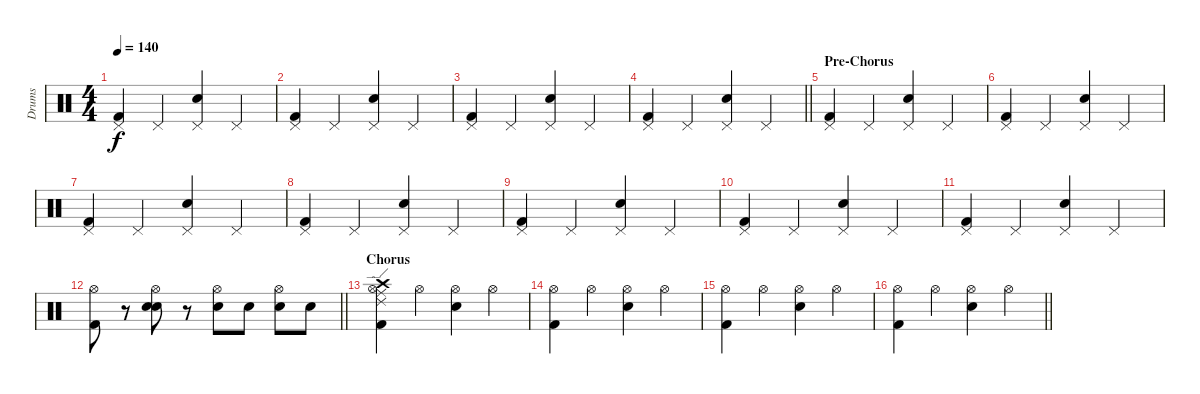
\track ("Drums" "Drums") {instrument percussion}
\staff {score}
\articulation defaults
\ts (4 4)
\tempo 140
\clef neutral
\ks c
("Pedal Hi-Hat (hit)" "Kick (hit) 2").4{dy f} "Pedal Hi-Hat (hit)".4 ("Pedal Hi-Hat (hit)" "Snare (hit) 2").4 "Pedal Hi-Hat (hit)".4 |
("Pedal Hi-Hat (hit)" "Kick (hit) 2").4 "Pedal Hi-Hat (hit)".4 ("Pedal Hi-Hat (hit)" "Snare (hit) 2").4 "Pedal Hi-Hat (hit)".4 |
("Pedal Hi-Hat (hit)" "Kick (hit) 2").4 "Pedal Hi-Hat (hit)".4 ("Pedal Hi-Hat (hit)" "Snare (hit) 2").4 "Pedal Hi-Hat (hit)".4 |
\barLineRight lightlight
("Pedal Hi-Hat (hit)" "Kick (hit) 2").4 "Pedal Hi-Hat (hit)".4 ("Pedal Hi-Hat (hit)" "Snare (hit) 2").4 "Pedal Hi-Hat (hit)".4 |
\section ("" "Pre-Chorus")
("Pedal Hi-Hat (hit)" "Kick (hit) 2").4 "Pedal Hi-Hat (hit)".4 ("Pedal Hi-Hat (hit)" "Snare (hit) 2").4 "Pedal Hi-Hat (hit)".4 |
("Pedal Hi-Hat (hit)" "Kick (hit) 2").4 "Pedal Hi-Hat (hit)".4 ("Pedal Hi-Hat (hit)" "Snare (hit) 2").4 "Pedal Hi-Hat (hit)".4 |
("Pedal Hi-Hat (hit)" "Kick (hit) 2").4 "Pedal Hi-Hat (hit)".4 ("Pedal Hi-Hat (hit)" "Snare (hit) 2").4 "Pedal Hi-Hat (hit)".4 |
("Pedal Hi-Hat (hit)" "Kick (hit) 2").4 "Pedal Hi-Hat (hit)".4 ("Pedal Hi-Hat (hit)" "Snare (hit) 2").4 "Pedal Hi-Hat (hit)".4 |
("Pedal Hi-Hat (hit)" "Kick (hit) 2").4 "Pedal Hi-Hat (hit)".4 ("Pedal Hi-Hat (hit)" "Snare (hit) 2").4 "Pedal Hi-Hat (hit)".4 |
("Pedal Hi-Hat (hit)" "Kick (hit) 2").4 "Pedal Hi-Hat (hit)".4 ("Pedal Hi-Hat (hit)" "Snare (hit) 2").4 "Pedal Hi-Hat (hit)".4 |
("Pedal Hi-Hat (hit)" "Kick (hit) 2").4 "Pedal Hi-Hat (hit)".4 ("Pedal Hi-Hat (hit)" "Snare (hit) 2").4 "Pedal Hi-Hat (hit)".4 |
\barLineRight lightlight
("Hi-Hat (open)" "Kick (hit) 2").8 r.8 ("Hi-Hat (open)" "Snare (hit) 2" "Snare (hit) 2").8 r.8 ("Hi-Hat (open)" "Snare (hit) 2").8 "Snare (hit) 2".8 ("Hi-Hat (open)" "Snare (hit) 2").8 "Snare (hit) 2".8 |
\section ("" "Chorus")
("Hi-Hat (open)" "Kick (hit) 2" "Ride (middle)" "Ride (edge) 2" "Crash high (hit)").4 "Hi-Hat (open)".4 ("Hi-Hat (open)" "Snare (hit) 2").4 "Hi-Hat (open)".4 |
("Hi-Hat (open)" "Kick (hit) 2").4 "Hi-Hat (open)".4 ("Hi-Hat (open)" "Snare (hit) 2").4 "Hi-Hat (open)".4 |
("Hi-Hat (open)" "Kick (hit) 2").4 "Hi-Hat (open)".4 ("Hi-Hat (open)" "Snare (hit) 2").4 "Hi-Hat (open)".4 |
\barLineRight lightlight
("Hi-Hat (open)" "Kick (hit) 2").4 "Hi-Hat (open)".4 ("Hi-Hat (open)" "Snare (hit) 2").4 "Hi-Hat (open)".4
